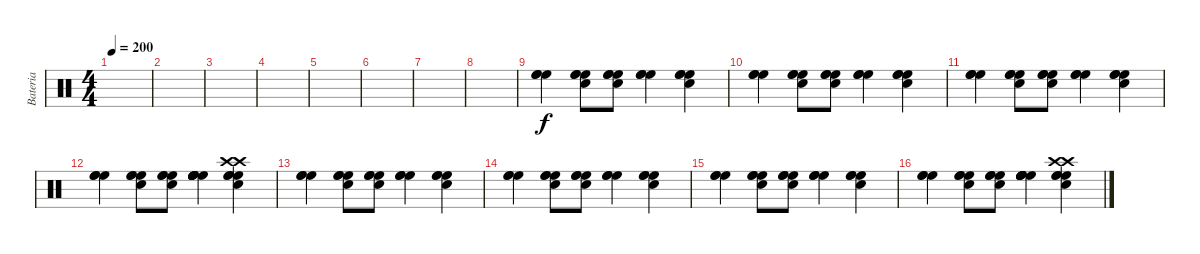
\track ("Bateria" "Bateria") {instrument percussion}
\staff {score}
\articulation defaults
\ts (4 4)
\tempo 200
\clef neutral
\ks c
|
|
|
|
|
|
|
|
("High Floor Tom (hit)" "High Floor Tom (hit)" "High Floor Tom (hit)").4 ("Snare (hit) 2" "High Floor Tom (hit)" "High Floor Tom (hit)" "High Floor Tom (hit)").8 ("Snare (hit) 2" "High Floor Tom (hit)" "High Floor Tom (hit)" "High Floor Tom (hit)").8 ("High Floor Tom (hit)" "High Floor Tom (hit)" "High Floor Tom (hit)").4 ("Snare (hit) 2" "High Floor Tom (hit)" "High Floor Tom (hit)" "High Floor Tom (hit)").4 |
("High Floor Tom (hit)" "High Floor Tom (hit)" "High Floor Tom (hit)").4 ("Snare (hit) 2" "High Floor Tom (hit)" "High Floor Tom (hit)" "High Floor Tom (hit)").8 ("Snare (hit) 2" "High Floor Tom (hit)" "High Floor Tom (hit)" "High Floor Tom (hit)").8 ("High Floor Tom (hit)" "High Floor Tom (hit)" "High Floor Tom (hit)").4 ("Snare (hit) 2" "High Floor Tom (hit)" "High Floor Tom (hit)" "High Floor Tom (hit)").4 |
("High Floor Tom (hit)" "High Floor Tom (hit)" "High Floor Tom (hit)").4 ("Snare (hit) 2" "High Floor Tom (hit)" "High Floor Tom (hit)" "High Floor Tom (hit)").8 ("Snare (hit) 2" "High Floor Tom (hit)" "High Floor Tom (hit)" "High Floor Tom (hit)").8 ("High Floor Tom (hit)" "High Floor Tom (hit)" "High Floor Tom (hit)").4 ("Snare (hit) 2" "High Floor Tom (hit)" "High Floor Tom (hit)" "High Floor Tom (hit)").4 |
("High Floor Tom (hit)" "High Floor Tom (hit)" "High Floor Tom (hit)").4 ("Snare (hit) 2" "High Floor Tom (hit)" "High Floor Tom (hit)" "High Floor Tom (hit)").8 ("Snare (hit) 2" "High Floor Tom (hit)" "High Floor Tom (hit)" "High Floor Tom (hit)").8 ("High Floor Tom (hit)" "High Floor Tom (hit)" "High Floor Tom (hit)" "High Floor Tom (hit)" "High Floor Tom (hit)" "High Floor Tom (hit)").4 ("Crash high (hit)" "Crash high (hit)" "Snare (hit) 2" "High Floor Tom (hit)" "High Floor Tom (hit)" "High Floor Tom (hit)").4 |
("High Floor Tom (hit)" "High Floor Tom (hit)" "High Floor Tom (hit)").4 ("Snare (hit) 2" "High Floor Tom (hit)" "High Floor Tom (hit)" "High Floor Tom (hit)").8 ("Snare (hit) 2" "High Floor Tom (hit)" "High Floor Tom (hit)" "High Floor Tom (hit)").8 ("High Floor Tom (hit)" "High Floor Tom (hit)" "High Floor Tom (hit)").4 ("Snare (hit) 2" "High Floor Tom (hit)" "High Floor Tom (hit)" "High Floor Tom (hit)").4 |
("High Floor Tom (hit)" "High Floor Tom (hit)" "High Floor Tom (hit)").4 ("Snare (hit) 2" "High Floor Tom (hit)" "High Floor Tom (hit)" "High Floor Tom (hit)").8 ("Snare (hit) 2" "High Floor Tom (hit)" "High Floor Tom (hit)" "High Floor Tom (hit)").8 ("High Floor Tom (hit)" "High Floor Tom (hit)" "High Floor Tom (hit)").4 ("Snare (hit) 2" "High Floor Tom (hit)" "High Floor Tom (hit)" "High Floor Tom (hit)").4 |
("High Floor Tom (hit)" "High Floor Tom (hit)" "High Floor Tom (hit)").4 ("Snare (hit) 2" "High Floor Tom (hit)" "High Floor Tom (hit)" "High Floor Tom (hit)").8 ("Snare (hit) 2" "High Floor Tom (hit)" "High Floor Tom (hit)" "High Floor Tom (hit)").8 ("High Floor Tom (hit)" "High Floor Tom (hit)" "High Floor Tom (hit)").4 ("Snare (hit) 2" "High Floor Tom (hit)" "High Floor Tom (hit)" "High Floor Tom (hit)").4 |
("High Floor Tom (hit)" "High Floor Tom (hit)" "High Floor Tom (hit)").4 ("Snare (hit) 2" "High Floor Tom (hit)" "High Floor Tom (hit)" "High Floor Tom (hit)").8 ("Snare (hit) 2" "High Floor Tom (hit)" "High Floor Tom (hit)" "High Floor Tom (hit)").8 ("High Floor Tom (hit)" "High Floor Tom (hit)" "High Floor Tom (hit)" "High Floor Tom (hit)" "High Floor Tom (hit)" "High Floor Tom (hit)").4 ("Crash high (hit)" "Crash high (hit)" "Snare (hit) 2" "High Floor Tom (hit)" "High Floor Tom (hit)" "High Floor Tom (hit)").4
